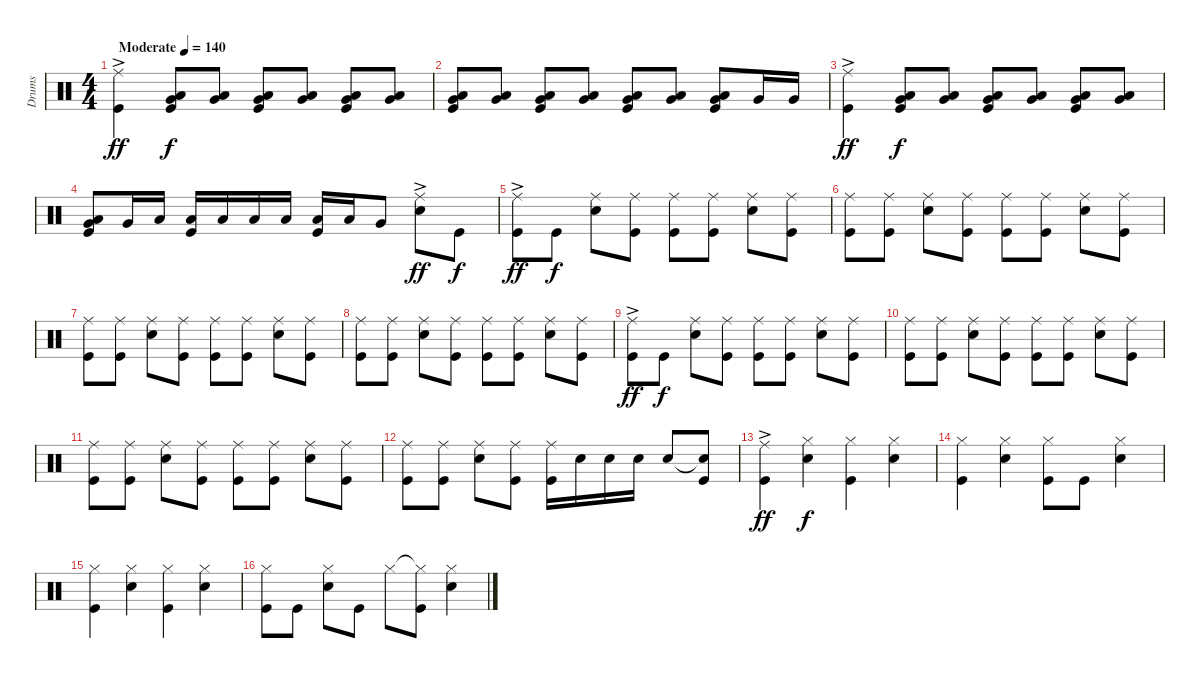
\track ("Drums" "Drums") {instrument percussion}
\staff {score}
\articulation defaults
\ts (4 4)
\tempo (140 "Moderate")
\clef neutral
\ks c
("Kick (hit)"{ac} "Ride (middle)").4{dy ff} ("Low Tom (hit)" "Very Low Tom (hit)" "Kick (hit)").8{dy f} ("Very Low Tom (hit)" "Low Tom (hit)").8 ("Low Tom (hit)" "Very Low Tom (hit)" "Kick (hit)").8 ("Very Low Tom (hit)" "Low Tom (hit)").8 ("Low Tom (hit)" "Very Low Tom (hit)" "Kick (hit)").8 ("Very Low Tom (hit)" "Low Tom (hit)").8 |
("Low Tom (hit)" "Very Low Tom (hit)" "Kick (hit)").8 ("Very Low Tom (hit)" "Low Tom (hit)").8 ("Low Tom (hit)" "Very Low Tom (hit)" "Kick (hit)").8 ("Very Low Tom (hit)" "Low Tom (hit)").8 ("Low Tom (hit)" "Very Low Tom (hit)" "Kick (hit)").8 ("Very Low Tom (hit)" "Low Tom (hit)").8 ("Low Tom (hit)" "Very Low Tom (hit)" "Kick (hit)").8 "Very Low Tom (hit)".16 "Very Low Tom (hit)".16 |
("Kick (hit)"{ac} "Ride (middle)").4{dy ff} ("Low Tom (hit)" "Very Low Tom (hit)" "Kick (hit)").8{dy f} ("Very Low Tom (hit)" "Low Tom (hit)").8 ("Low Tom (hit)" "Very Low Tom (hit)" "Kick (hit)").8 ("Very Low Tom (hit)" "Low Tom (hit)").8 ("Low Tom (hit)" "Very Low Tom (hit)" "Kick (hit)").8 ("Very Low Tom (hit)" "Low Tom (hit)").8 |
("Low Tom (hit)" "Very Low Tom (hit)" "Kick (hit)").8 "Very Low Tom (hit)".16 "Low Tom (hit)".16 ("Kick (hit)" "Low Tom (hit)").16 "Low Tom (hit)".16 "Low Tom (hit)".16 "Low Tom (hit)".16 ("Kick (hit)" "Low Tom (hit)").16 "Low Tom (hit)".16 "Very Low Tom (hit)".8 ("Ride (middle)"{ac} "Snare (hit) 2").8{dy ff} "Kick (hit)".8{dy f} |
("Ride (middle)" "Kick (hit)"{ac}).8{dy ff} "Kick (hit)".8{dy f} ("Ride (middle)" "Snare (hit) 2").8 ("Ride (middle)" "Kick (hit)").8 ("Ride (middle)" "Kick (hit)").8 ("Ride (middle)" "Kick (hit)").8 ("Ride (middle)" "Snare (hit) 2").8 ("Ride (middle)" "Kick (hit)").8 |
("Ride (middle)" "Kick (hit)").8 ("Ride (middle)" "Kick (hit)").8 ("Ride (middle)" "Snare (hit) 2").8 ("Ride (middle)" "Kick (hit)").8 ("Ride (middle)" "Kick (hit)").8 ("Ride (middle)" "Kick (hit)").8 ("Ride (middle)" "Snare (hit) 2").8 ("Ride (middle)" "Kick (hit)").8 |
("Ride (middle)" "Kick (hit)").8 ("Ride (middle)" "Kick (hit)").8 ("Ride (middle)" "Snare (hit) 2").8 ("Ride (middle)" "Kick (hit)").8 ("Ride (middle)" "Kick (hit)").8 ("Ride (middle)" "Kick (hit)").8 ("Ride (middle)" "Snare (hit) 2").8 ("Ride (middle)" "Kick (hit)").8 |
("Ride (middle)" "Kick (hit)").8 ("Ride (middle)" "Kick (hit)").8 ("Ride (middle)" "Snare (hit) 2").8 ("Ride (middle)" "Kick (hit)").8 ("Ride (middle)" "Kick (hit)").8 ("Ride (middle)" "Kick (hit)").8 ("Ride (middle)" "Snare (hit) 2").8 ("Ride (middle)" "Kick (hit)").8 |
("Ride (middle)" "Kick (hit)"{ac}).8{dy ff} "Kick (hit)".8{dy f} ("Ride (middle)" "Snare (hit) 2").8 ("Ride (middle)" "Kick (hit)").8 ("Ride (middle)" "Kick (hit)").8 ("Ride (middle)" "Kick (hit)").8 ("Ride (middle)" "Snare (hit) 2").8 ("Ride (middle)" "Kick (hit)").8 |
("Ride (middle)" "Kick (hit)").8 ("Ride (middle)" "Kick (hit)").8 ("Ride (middle)" "Snare (hit) 2").8 ("Ride (middle)" "Kick (hit)").8 ("Ride (middle)" "Kick (hit)").8 ("Ride (middle)" "Kick (hit)").8 ("Ride (middle)" "Snare (hit) 2").8 ("Ride (middle)" "Kick (hit)").8 |
("Ride (middle)" "Kick (hit)").8 ("Ride (middle)" "Kick (hit)").8 ("Ride (middle)" "Snare (hit) 2").8 ("Ride (middle)" "Kick (hit)").8 ("Ride (middle)" "Kick (hit)").8 ("Ride (middle)" "Kick (hit)").8 ("Ride (middle)" "Snare (hit) 2").8 ("Ride (middle)" "Kick (hit)").8 |
("Ride (middle)" "Kick (hit)").8 ("Ride (middle)" "Kick (hit)").8 ("Ride (middle)" "Snare (hit) 2").8 ("Ride (middle)" "Kick (hit)").8 ("Kick (hit)" "Ride (middle)").16 "Snare (hit) 2".16 "Snare (hit) 2".16 "Snare (hit) 2".16 "Snare (hit) 2".8 ("Snare (hit) 2"{t} "Kick (hit)").8 |
("Ride (middle)" "Kick (hit)"{ac}).4{dy ff} ("Snare (hit) 2" "Hi-Hat (closed)").4{dy f} ("Kick (hit)" "Hi-Hat (closed)").4 ("Snare (hit) 2" "Hi-Hat (closed)").4 |
("Hi-Hat (closed)" "Kick (hit)").4 ("Snare (hit) 2" "Hi-Hat (closed)").4 ("Kick (hit)" "Hi-Hat (closed)").8 "Kick (hit)".8 ("Snare (hit) 2" "Hi-Hat (closed)").4 |
("Hi-Hat (closed)" "Kick (hit)").4 ("Snare (hit) 2" "Hi-Hat (closed)").4 ("Kick (hit)" "Hi-Hat (closed)").4 ("Snare (hit) 2" "Hi-Hat (closed)").4 |
("Hi-Hat (closed)" "Kick (hit)").8 "Kick (hit)".8 ("Hi-Hat (closed)" "Snare (hit) 2").8 "Kick (hit)".8 "Hi-Hat (closed)".8 ("Hi-Hat (closed)"{t} "Kick (hit)").8 ("Snare (hit) 2" "Hi-Hat (closed)").4
